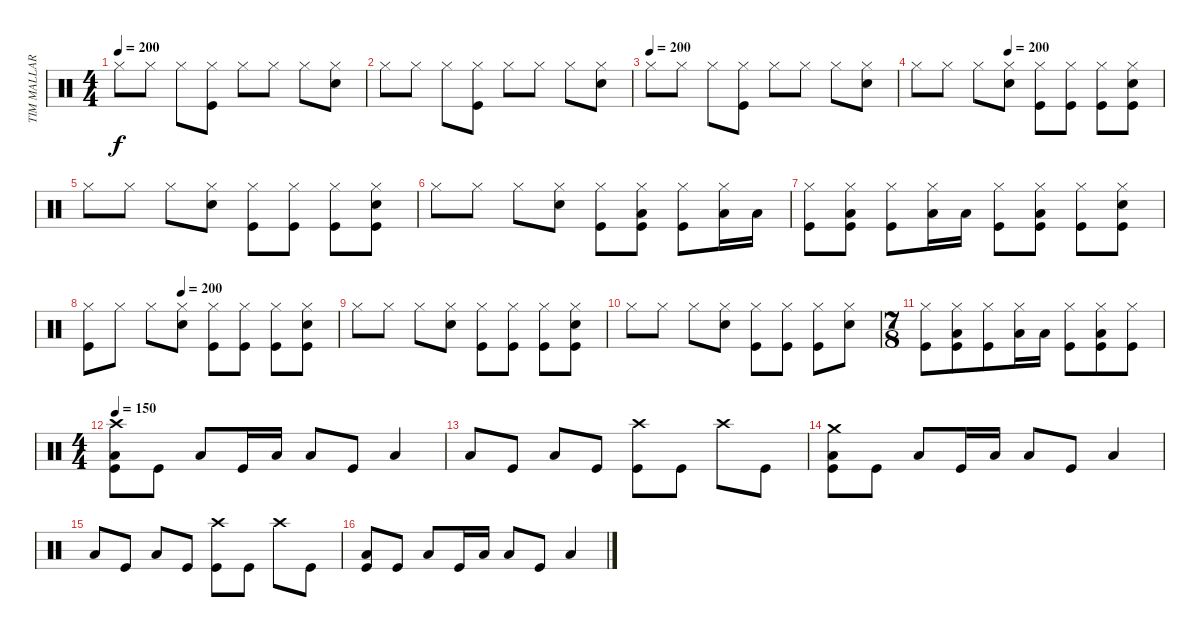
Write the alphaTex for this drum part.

\track ("TIM MALLARE - drums" "TIM MALLAR") {instrument percussion}
\staff {score}
\articulation defaults
\ts (4 4)
\tempo 200
\clef neutral
\ks c "Hi-Hat (closed)".8{dy f} "Hi-Hat (closed)".8 "Hi-Hat (closed)".8
("Hi-Hat (closed)" "Kick (hit)").8 "Hi-Hat (closed)".8 "Hi-Hat (closed)".8 "Hi-Hat (closed)".8 ("Hi-Hat (closed)" "Electric Snare (hit)").8 |
"Hi-Hat (closed)".8 "Hi-Hat (closed)".8 "Hi-Hat (closed)".8 ("Hi-Hat (closed)" "Kick (hit)").8 "Hi-Hat (closed)".8 "Hi-Hat (closed)".8 "Hi-Hat (closed)".8 ("Hi-Hat (closed)" "Electric Snare (hit)").8 |
\tempo (200)
"Hi-Hat (closed)".8 "Hi-Hat (closed)".8 "Hi-Hat (closed)".8 ("Hi-Hat (closed)" "Kick (hit)").8 "Hi-Hat (closed)".8 "Hi-Hat (closed)".8 "Hi-Hat (closed)".8 ("Hi-Hat (closed)" "Electric Snare (hit)").8 |
\tempo (200 0.375)
"Hi-Hat (closed)".8 "Hi-Hat (closed)".8 "Hi-Hat (closed)".8 ("Hi-Hat (closed)" "Electric Snare (hit)").8 ("Hi-Hat (closed)" "Kick (hit)").8 ("Hi-Hat (closed)" "Kick (hit)").8 ("Hi-Hat (closed)" "Kick (hit)").8 ("Hi-Hat (closed)" "Electric Snare (hit)" "Kick (hit)").8 |
"Hi-Hat (closed)".8 "Hi-Hat (closed)".8 "Hi-Hat (closed)".8 ("Hi-Hat (closed)" "Electric Snare (hit)").8 ("Hi-Hat (closed)" "Kick (hit)").8 ("Hi-Hat (closed)" "Kick (hit)").8 ("Hi-Hat (closed)" "Kick (hit)").8 ("Hi-Hat (closed)" "Electric Snare (hit)" "Kick (hit)").8 |
"Hi-Hat (closed)".8 "Hi-Hat (closed)".8 "Hi-Hat (closed)".8 ("Hi-Hat (closed)" "Electric Snare (hit)").8 ("Hi-Hat (closed)" "Kick (hit)").8 ("Hi-Hat (closed)" "Low Tom (hit)" "Kick (hit)").8 ("Hi-Hat (closed)" "Kick (hit)").8 ("Hi-Hat (closed)" "Low Tom (hit)").16 "Low Tom (hit)".16 |
("Hi-Hat (closed)" "Kick (hit)").8 ("Hi-Hat (closed)" "Low Tom (hit)" "Kick (hit)").8 ("Hi-Hat (closed)" "Kick (hit)").8 ("Hi-Hat (closed)" "Low Tom (hit)").16 "Low Tom (hit)".16 ("Hi-Hat (closed)" "Kick (hit)").8 ("Hi-Hat (closed)" "Low Tom (hit)" "Kick (hit)").8 ("Hi-Hat (closed)" "Kick (hit)").8 ("Hi-Hat (closed)" "Electric Snare (hit)" "Kick (hit)").8 |
\tempo (200 0.375)
("Hi-Hat (closed)" "Kick (hit)").8 "Hi-Hat (closed)".8 "Hi-Hat (closed)".8 ("Hi-Hat (closed)" "Electric Snare (hit)").8 ("Hi-Hat (closed)" "Kick (hit)").8 ("Hi-Hat (closed)" "Kick (hit)").8 ("Hi-Hat (closed)" "Kick (hit)").8 ("Hi-Hat (closed)" "Electric Snare (hit)" "Kick (hit)").8 |
"Hi-Hat (closed)".8 "Hi-Hat (closed)".8 "Hi-Hat (closed)".8 ("Hi-Hat (closed)" "Electric Snare (hit)").8 ("Hi-Hat (closed)" "Kick (hit)").8 ("Hi-Hat (closed)" "Kick (hit)").8 ("Hi-Hat (closed)" "Kick (hit)").8 ("Hi-Hat (closed)" "Electric Snare (hit)" "Kick (hit)").8 |
"Hi-Hat (closed)".8 "Hi-Hat (closed)".8 "Hi-Hat (closed)".8 ("Hi-Hat (closed)" "Electric Snare (hit)").8 ("Hi-Hat (closed)" "Kick (hit)").8 ("Hi-Hat (closed)" "Kick (hit)").8 ("Hi-Hat (closed)" "Kick (hit)").8 ("Hi-Hat (closed)" "Electric Snare (hit)").8 |
\ts (7 8)
("Hi-Hat (closed)" "Kick (hit)").8 ("Hi-Hat (closed)" "Low Tom (hit)" "Kick (hit)").8 ("Hi-Hat (closed)" "Kick (hit)").8 ("Hi-Hat (closed)" "Low Tom (hit)").16 "Low Tom (hit)".16 ("Hi-Hat (closed)" "Kick (hit)").8 ("Hi-Hat (closed)" "Low Tom (hit)" "Kick (hit)").8 ("Hi-Hat (closed)" "Kick (hit)").8 |
\ts (4 4)
\tempo 150
("Crash high (hit)" "Low Tom (hit)" "Kick (hit)").8 "Kick (hit)".8 "Low Tom (hit)".8 "Kick (hit)".16 "Low Tom (hit)".16 "Low Tom (hit)".8 "Kick (hit)".8 "Low Tom (hit)".4 |
"Low Tom (hit)".8 "Kick (hit)".8 "Low Tom (hit)".8 "Kick (hit)".8 ("Crash high (hit)" "Kick (hit)").8 "Kick (hit)".8 "Crash high (hit)".8 "Kick (hit)".8 |
("Crash medium (hit)" "Low Tom (hit)" "Kick (hit)").8 "Kick (hit)".8 "Low Tom (hit)".8 "Kick (hit)".16 "Low Tom (hit)".16 "Low Tom (hit)".8 "Kick (hit)".8 "Low Tom (hit)".4 |
"Low Tom (hit)".8 "Kick (hit)".8 "Low Tom (hit)".8 "Kick (hit)".8 ("Crash high (hit)" "Kick (hit)").8 "Kick (hit)".8 "Crash high (hit)".8 "Kick (hit)".8 |
("Low Tom (hit)" "Kick (hit)").8 "Kick (hit)".8 "Low Tom (hit)".8 "Kick (hit)".16 "Low Tom (hit)".16 "Low Tom (hit)".8 "Kick (hit)".8 "Low Tom (hit)".4
